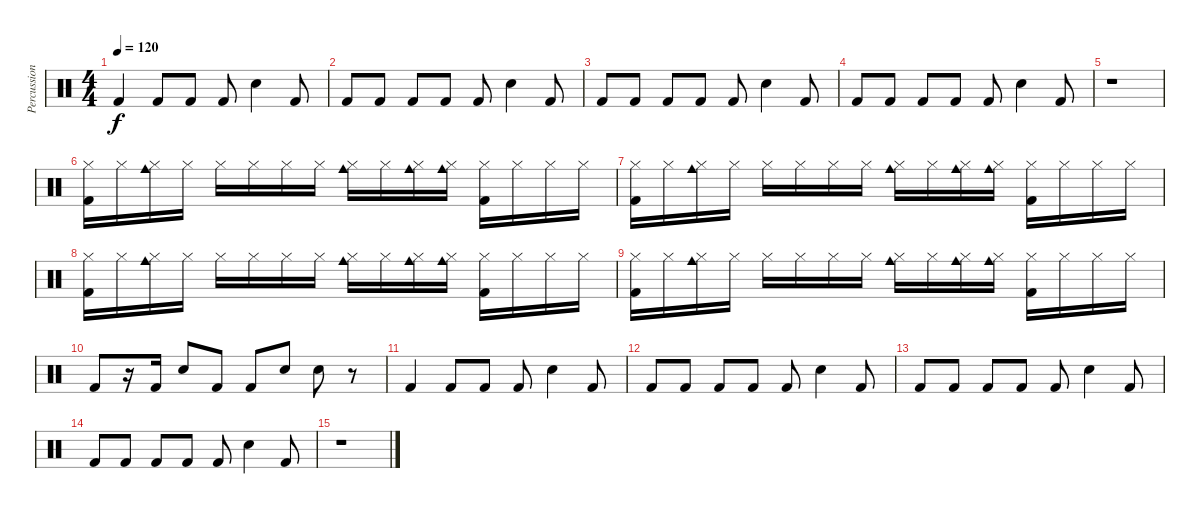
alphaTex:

\track ("Percussion" "Percussion") {instrument percussion}
\staff {score}
\articulation defaults
\ts (4 4)
\tempo 120
\clef neutral
\ks c "Kick (hit) 2".4{dy f} "Kick (hit) 2".8 "Kick (hit) 2".8 "Kick (hit) 2".8 "Electric Snare (hit)".4 "Kick (hit) 2".8
|
"Kick (hit) 2".8 "Kick (hit) 2".8 "Kick (hit) 2".8 "Kick (hit) 2".8 "Kick (hit) 2".8 "Electric Snare (hit)".4 "Kick (hit) 2".8 |
"Kick (hit) 2".8 "Kick (hit) 2".8 "Kick (hit) 2".8 "Kick (hit) 2".8 "Kick (hit) 2".8 "Electric Snare (hit)".4 "Kick (hit) 2".8 |
"Kick (hit) 2".8 "Kick (hit) 2".8 "Kick (hit) 2".8 "Kick (hit) 2".8 "Kick (hit) 2".8 "Electric Snare (hit)".4 "Kick (hit) 2".8 |
r.1 |
("Hi-Hat (closed)" "Kick (hit) 2").16 "Hi-Hat (closed)".16 ("Hi-Hat (closed)" "Cowbell medium (hit)").16 "Hi-Hat (closed)".16 "Hi-Hat (closed)".16 "Hi-Hat (closed)".16 "Hi-Hat (closed)".16 "Hi-Hat (closed)".16 ("Hi-Hat (closed)" "Cowbell medium (hit)").16 "Hi-Hat (closed)".16 ("Hi-Hat (closed)" "Cowbell medium (hit)").16 ("Hi-Hat (closed)" "Cowbell medium (hit)").16 ("Hi-Hat (closed)" "Kick (hit) 2").16 "Hi-Hat (closed)".16 "Hi-Hat (closed)".16 "Hi-Hat (closed)".16 |
("Hi-Hat (closed)" "Kick (hit) 2").16 "Hi-Hat (closed)".16 ("Hi-Hat (closed)" "Cowbell medium (hit)").16 "Hi-Hat (closed)".16 "Hi-Hat (closed)".16 "Hi-Hat (closed)".16 "Hi-Hat (closed)".16 "Hi-Hat (closed)".16 ("Hi-Hat (closed)" "Cowbell medium (hit)").16 "Hi-Hat (closed)".16 ("Hi-Hat (closed)" "Cowbell medium (hit)").16 ("Hi-Hat (closed)" "Cowbell medium (hit)").16 ("Hi-Hat (closed)" "Kick (hit) 2").16 "Hi-Hat (closed)".16 "Hi-Hat (closed)".16 "Hi-Hat (closed)".16 |
("Hi-Hat (closed)" "Kick (hit) 2").16 "Hi-Hat (closed)".16 ("Hi-Hat (closed)" "Cowbell medium (hit)").16 "Hi-Hat (closed)".16 "Hi-Hat (closed)".16 "Hi-Hat (closed)".16 "Hi-Hat (closed)".16 "Hi-Hat (closed)".16 ("Hi-Hat (closed)" "Cowbell medium (hit)").16 "Hi-Hat (closed)".16 ("Hi-Hat (closed)" "Cowbell medium (hit)").16 ("Hi-Hat (closed)" "Cowbell medium (hit)").16 ("Hi-Hat (closed)" "Kick (hit) 2").16 "Hi-Hat (closed)".16 "Hi-Hat (closed)".16 "Hi-Hat (closed)".16 |
("Hi-Hat (closed)" "Kick (hit) 2").16 "Hi-Hat (closed)".16 ("Hi-Hat (closed)" "Cowbell medium (hit)").16 "Hi-Hat (closed)".16 "Hi-Hat (closed)".16 "Hi-Hat (closed)".16 "Hi-Hat (closed)".16 "Hi-Hat (closed)".16 ("Hi-Hat (closed)" "Cowbell medium (hit)").16 "Hi-Hat (closed)".16 ("Hi-Hat (closed)" "Cowbell medium (hit)").16 ("Hi-Hat (closed)" "Cowbell medium (hit)").16 ("Hi-Hat (closed)" "Kick (hit) 2").16 "Hi-Hat (closed)".16 "Hi-Hat (closed)".16 "Hi-Hat (closed)".16 |
"Kick (hit) 2".8 r.16 "Kick (hit) 2".16 "Electric Snare (hit)".8 "Kick (hit) 2".8 "Kick (hit) 2".8 "Electric Snare (hit)".8 "Electric Snare (hit)".8 r.8 |
"Kick (hit) 2".4 "Kick (hit) 2".8 "Kick (hit) 2".8 "Kick (hit) 2".8 "Electric Snare (hit)".4 "Kick (hit) 2".8 |
"Kick (hit) 2".8 "Kick (hit) 2".8 "Kick (hit) 2".8 "Kick (hit) 2".8 "Kick (hit) 2".8 "Electric Snare (hit)".4 "Kick (hit) 2".8 |
"Kick (hit) 2".8 "Kick (hit) 2".8 "Kick (hit) 2".8 "Kick (hit) 2".8 "Kick (hit) 2".8 "Electric Snare (hit)".4 "Kick (hit) 2".8 |
"Kick (hit) 2".8 "Kick (hit) 2".8 "Kick (hit) 2".8 "Kick (hit) 2".8 "Kick (hit) 2".8 "Electric Snare (hit)".4 "Kick (hit) 2".8 |
r.1
